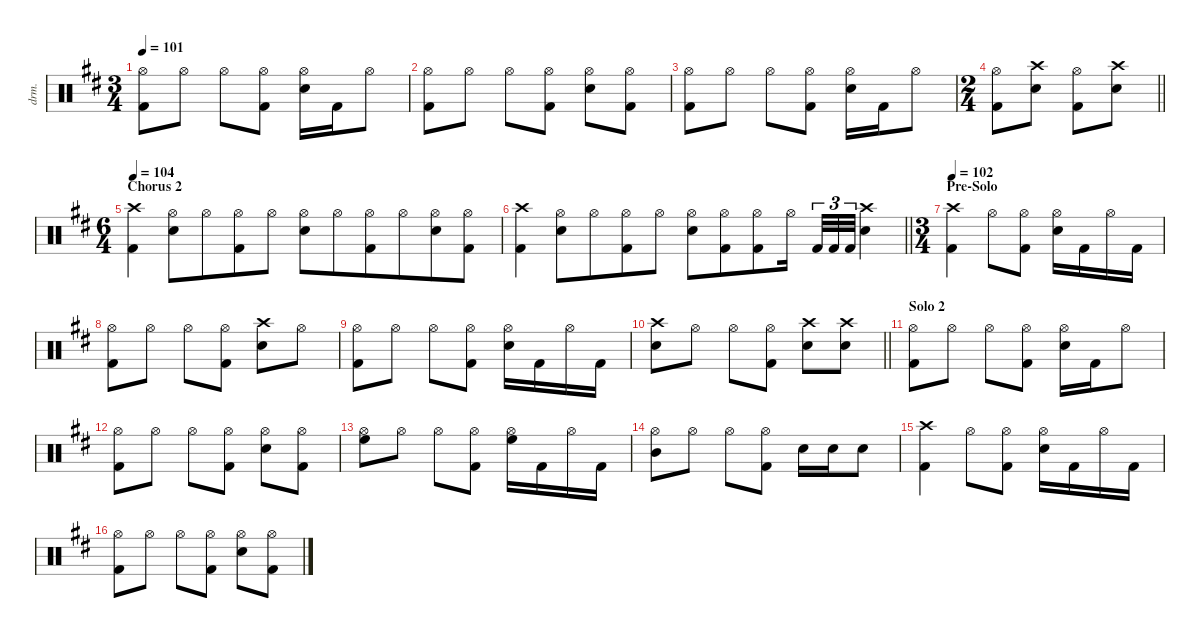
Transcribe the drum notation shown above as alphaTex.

\defaultSystemsLayout 4
\hideDynamics
\bracketExtendMode nobrackets
\otherSystemsTrackNameOrientation horizontal
\track ("Lars Ulrich" "drm.") {defaultSystemsLayout 4 instrument percussion}
\staff {score}
\articulation defaults
\ts (3 4)
\tempo 101
\clef neutral
\ks bminor
("Hi-Hat (open)"{acc forcenatural} "Kick (hit) 2"{acc forcenatural}).8{dy mf} "Hi-Hat (open)"{acc forcenatural}.8 "Hi-Hat (open)"{acc forcenatural}.8 ("Hi-Hat (open)"{acc forcenatural} "Kick (hit) 2"{acc forcenatural}).8 ("Hi-Hat (open)"{acc forcenatural} "Snare (hit) 2"{acc forcenatural}).16 "Kick (hit) 2"{acc forcenatural}.16{dy fff} "Hi-Hat (open)"{acc forcenatural}.8{dy mf} |
("Hi-Hat (open)"{acc forcenatural} "Kick (hit) 2"{acc forcenatural}).8 "Hi-Hat (open)"{acc forcenatural}.8 "Hi-Hat (open)"{acc forcenatural}.8 ("Hi-Hat (open)"{acc forcenatural} "Kick (hit) 2"{acc forcenatural}).8 ("Hi-Hat (open)"{acc forcenatural} "Snare (hit) 2"{acc forcenatural}).8 ("Hi-Hat (open)"{acc forcenatural} "Kick (hit) 2"{acc forcenatural}).8 |
("Hi-Hat (open)"{acc forcenatural} "Kick (hit) 2"{acc forcenatural}).8 "Hi-Hat (open)"{acc forcenatural}.8 "Hi-Hat (open)"{acc forcenatural}.8 ("Hi-Hat (open)"{acc forcenatural} "Kick (hit) 2"{acc forcenatural}).8 ("Hi-Hat (open)"{acc forcenatural} "Snare (hit) 2"{acc forcenatural}).16 "Kick (hit) 2"{acc forcenatural}.16{dy fff} "Hi-Hat (open)"{acc forcenatural}.8{dy mf} |
\ts (2 4)
\beaming (8 2 2)
\barLineRight lightlight
("Hi-Hat (open)"{acc forcenatural} "Kick (hit) 2"{acc forcenatural}).8 ("Crash high (hit)"{acc forcenatural} "Snare (hit) 2"{acc forcenatural}).8{dy f} ("Hi-Hat (open)"{acc forcenatural} "Kick (hit) 2"{acc forcenatural}).8{dy mf} ("Crash high (hit)"{acc forcenatural} "Snare (hit) 2"{acc forcenatural}).8{dy f} |
\ts (6 4)
\beaming (8 6 6)
\section ("" "Chorus 2")
\tempo 104
("Crash high (hit)"{acc forcenatural} "Kick (hit) 2"{acc forcenatural}).4 ("Hi-Hat (open)"{acc forcenatural} "Snare (hit) 2"{acc forcenatural}).8 "Hi-Hat (open)"{acc forcenatural}.8 ("Hi-Hat (open)"{acc forcenatural} "Kick (hit) 2"{acc forcenatural}).8 "Hi-Hat (open)"{acc forcenatural}.8 ("Hi-Hat (open)"{acc forcenatural} "Snare (hit) 2"{acc forcenatural}).8 "Hi-Hat (open)"{acc forcenatural}.8 ("Hi-Hat (open)"{acc forcenatural} "Kick (hit) 2"{acc forcenatural}).8 "Hi-Hat (open)"{acc forcenatural}.8 ("Hi-Hat (open)"{acc forcenatural} "Snare (hit) 2"{acc forcenatural}).8 ("Hi-Hat (open)"{acc forcenatural} "Kick (hit) 2"{acc forcenatural}).8 |
\barLineRight lightlight
("Crash high (hit)"{acc forcenatural} "Kick (hit) 2"{acc forcenatural}).4 ("Hi-Hat (open)"{acc forcenatural} "Snare (hit) 2"{acc forcenatural}).8 "Hi-Hat (open)"{acc forcenatural}.8 ("Hi-Hat (open)"{acc forcenatural} "Kick (hit) 2"{acc forcenatural}).8 "Hi-Hat (open)"{acc forcenatural}.8 ("Hi-Hat (open)"{acc forcenatural} "Snare (hit) 2"{acc forcenatural}).8 ("Hi-Hat (open)"{acc forcenatural} "Kick (hit) 2"{acc forcenatural}).8 ("Hi-Hat (open)"{acc forcenatural} "Kick (hit) 2"{acc forcenatural}).8 "Hi-Hat (open)"{acc forcenatural}.16 "Kick (hit) 2"{acc forcenatural}.32{tu (3 2) dy fff} "Kick (hit) 2"{acc forcenatural}.32{tu (3 2)} "Kick (hit) 2"{acc forcenatural}.32{tu (3 2)} ("Crash high (hit)"{acc forcenatural} "Snare (hit) 2"{acc forcenatural}).4{dy f} |
\ts (3 4)
\beaming (8 2 2 2)
\section ("" "Pre-Solo")
\tempo 102
("Crash high (hit)"{acc forcenatural} "Kick (hit) 2"{acc forcenatural}).4 "Hi-Hat (open)"{acc forcenatural}.8{dy mf} ("Hi-Hat (open)"{acc forcenatural} "Kick (hit) 2"{acc forcenatural}).8 ("Hi-Hat (open)"{acc forcenatural} "Snare (hit) 2"{acc forcenatural}).16 "Kick (hit) 2"{acc forcenatural}.16{dy fff} "Hi-Hat (open)"{acc forcenatural}.16{dy mf} "Kick (hit) 2"{acc forcenatural}.16{dy fff} |
("Hi-Hat (open)"{acc forcenatural} "Kick (hit) 2"{acc forcenatural}).8{dy mf} "Hi-Hat (open)"{acc forcenatural}.8 "Hi-Hat (open)"{acc forcenatural}.8 ("Hi-Hat (open)"{acc forcenatural} "Kick (hit) 2"{acc forcenatural}).8 ("Crash high (hit)"{acc forcenatural} "Snare (hit) 2"{acc forcenatural}).8{dy f} "Hi-Hat (open)"{acc forcenatural}.8{dy mf} |
("Hi-Hat (open)"{acc forcenatural} "Kick (hit) 2"{acc forcenatural}).8 "Hi-Hat (open)"{acc forcenatural}.8 "Hi-Hat (open)"{acc forcenatural}.8 ("Hi-Hat (open)"{acc forcenatural} "Kick (hit) 2"{acc forcenatural}).8 ("Hi-Hat (open)"{acc forcenatural} "Snare (hit) 2"{acc forcenatural}).16 "Kick (hit) 2"{acc forcenatural}.16{dy fff} "Hi-Hat (open)"{acc forcenatural}.16{dy mf} "Kick (hit) 2"{acc forcenatural}.16{dy fff} |
\barLineRight lightlight
("Crash high (hit)"{acc forcenatural} "Snare (hit) 2"{acc forcenatural}).8{dy f} "Hi-Hat (open)"{acc forcenatural}.8{dy mf} "Hi-Hat (open)"{acc forcenatural}.8 ("Hi-Hat (open)"{acc forcenatural} "Kick (hit) 2"{acc forcenatural}).8 ("Crash high (hit)"{acc forcenatural} "Snare (hit) 2"{acc forcenatural}).8{dy f} ("Crash high (hit)"{acc forcenatural} "Snare (hit) 2"{acc forcenatural}).8 |
\section ("" "Solo 2")
("Hi-Hat (open)"{acc forcenatural} "Kick (hit) 2"{acc forcenatural}).8{dy mf} "Hi-Hat (open)"{acc forcenatural}.8 "Hi-Hat (open)"{acc forcenatural}.8 ("Hi-Hat (open)"{acc forcenatural} "Kick (hit) 2"{acc forcenatural}).8 ("Hi-Hat (open)"{acc forcenatural} "Snare (hit) 2"{acc forcenatural}).16 "Kick (hit) 2"{acc forcenatural}.16{dy fff} "Hi-Hat (open)"{acc forcenatural}.8{dy mf} |
("Hi-Hat (open)"{acc forcenatural} "Kick (hit) 2"{acc forcenatural}).8 "Hi-Hat (open)"{acc forcenatural}.8 "Hi-Hat (open)"{acc forcenatural}.8 ("Hi-Hat (open)"{acc forcenatural} "Kick (hit) 2"{acc forcenatural}).8 ("Hi-Hat (open)"{acc forcenatural} "Snare (hit) 2"{acc forcenatural}).8 ("Hi-Hat (open)"{acc forcenatural} "Kick (hit) 2"{acc forcenatural}).8 |
("Hi-Hat (open)"{acc forcenatural} "High Floor Tom (hit)"{acc forcenatural}).8 "Hi-Hat (open)"{acc forcenatural}.8 "Hi-Hat (open)"{acc forcenatural}.8 ("Hi-Hat (open)"{acc forcenatural} "Kick (hit) 2"{acc forcenatural}).8 ("Hi-Hat (open)"{acc forcenatural} "High Floor Tom (hit)"{acc forcenatural}).16 "Kick (hit) 2"{acc forcenatural}.16{dy fff} "Hi-Hat (open)"{acc forcenatural}.16{dy mf} "Kick (hit) 2"{acc forcenatural}.16{dy fff} |
("Hi-Hat (open)"{acc forcenatural} "Mid Tom (hit)"{acc forcenatural}).8{dy mf} "Hi-Hat (open)"{acc forcenatural}.8 "Hi-Hat (open)"{acc forcenatural}.8 ("Hi-Hat (open)"{acc forcenatural} "Kick (hit) 2"{acc forcenatural}).8 "Snare (hit) 2"{acc forcenatural}.16{dy fff} "Snare (hit) 2"{acc forcenatural}.16 "Snare (hit) 2"{acc forcenatural}.8 |
("Crash high (hit)"{acc forcenatural} "Kick (hit) 2"{acc forcenatural}).4{dy f} "Hi-Hat (open)"{acc forcenatural}.8{dy mf} ("Hi-Hat (open)"{acc forcenatural} "Kick (hit) 2"{acc forcenatural}).8 ("Hi-Hat (open)"{acc forcenatural} "Snare (hit) 2"{acc forcenatural}).16 "Kick (hit) 2"{acc forcenatural}.16{dy fff} "Hi-Hat (open)"{acc forcenatural}.16{dy mf} "Kick (hit) 2"{acc forcenatural}.16{dy fff} |
("Hi-Hat (open)"{acc forcenatural} "Kick (hit) 2"{acc forcenatural}).8{dy mf} "Hi-Hat (open)"{acc forcenatural}.8 "Hi-Hat (open)"{acc forcenatural}.8 ("Hi-Hat (open)"{acc forcenatural} "Kick (hit) 2"{acc forcenatural}).8 ("Hi-Hat (open)"{acc forcenatural} "Snare (hit) 2"{acc forcenatural}).8 ("Hi-Hat (open)"{acc forcenatural} "Kick (hit) 2"{acc forcenatural}).8
